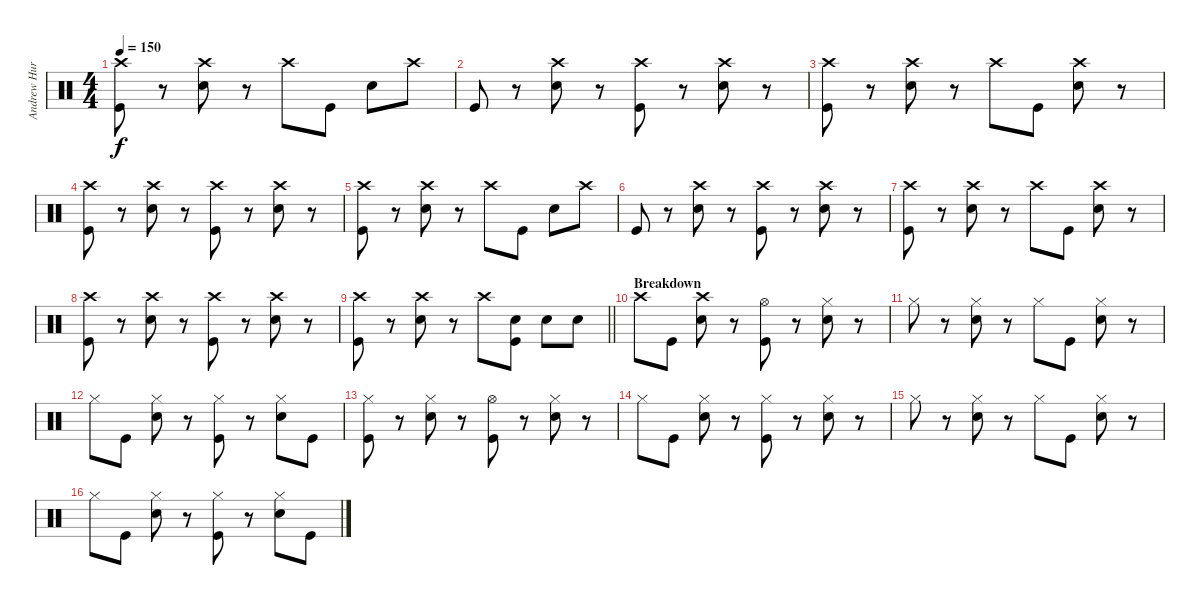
\track ("Andrew Hurley (Drums)" "Andrew Hur") {instrument percussion}
\staff {score}
\articulation defaults
\ts (4 4)
\tempo 150
\clef neutral
\ks c
("Crash high (hit)" "Kick (hit)").8{dy f} r.8 ("Crash high (hit)" "Snare (hit) 2").8 r.8 "Crash high (hit)".8 "Kick (hit)".8 "Snare (hit) 2".8 "Crash high (hit)".8 |
"Kick (hit)".8 r.8 ("Crash high (hit)" "Snare (hit) 2").8 r.8 ("Crash high (hit)" "Kick (hit)").8 r.8 ("Crash high (hit)" "Snare (hit) 2").8 r.8 |
("Crash high (hit)" "Kick (hit)").8 r.8 ("Crash high (hit)" "Snare (hit) 2").8 r.8 "Crash high (hit)".8 "Kick (hit)".8 ("Crash high (hit)" "Snare (hit) 2").8 r.8 |
("Crash high (hit)" "Kick (hit)").8 r.8 ("Crash high (hit)" "Snare (hit) 2").8 r.8 ("Crash high (hit)" "Kick (hit)").8 r.8 ("Crash high (hit)" "Snare (hit) 2").8 r.8 |
("Crash high (hit)" "Kick (hit)").8 r.8 ("Crash high (hit)" "Snare (hit) 2").8 r.8 "Crash high (hit)".8 "Kick (hit)".8 "Snare (hit) 2".8 "Crash high (hit)".8 |
"Kick (hit)".8 r.8 ("Crash high (hit)" "Snare (hit) 2").8 r.8 ("Crash high (hit)" "Kick (hit)").8 r.8 ("Crash high (hit)" "Snare (hit) 2").8 r.8 |
("Crash high (hit)" "Kick (hit)").8 r.8 ("Crash high (hit)" "Snare (hit) 2").8 r.8 "Crash high (hit)".8 "Kick (hit)".8 ("Crash high (hit)" "Snare (hit) 2").8 r.8 |
("Crash high (hit)" "Kick (hit)").8 r.8 ("Crash high (hit)" "Snare (hit) 2").8 r.8 ("Crash high (hit)" "Kick (hit)").8 r.8 ("Crash high (hit)" "Snare (hit) 2").8 r.8 |
\barLineRight lightlight
("Crash high (hit)" "Kick (hit)").8 r.8 ("Crash high (hit)" "Snare (hit) 2").8 r.8 "Crash high (hit)".8 ("Snare (hit) 2" "Kick (hit)").8 "Snare (hit) 2".8 "Snare (hit) 2".8 |
\section ("" "Breakdown")
"Crash high (hit)".8 "Kick (hit)".8 ("Crash high (hit)" "Snare (hit) 2").8 r.8 ("Hi-Hat (open)" "Kick (hit)").8 r.8 ("Hi-Hat (closed)" "Snare (hit) 2").8 r.8 |
"Hi-Hat (closed)".8 r.8 ("Hi-Hat (closed)" "Snare (hit) 2").8 r.8 "Hi-Hat (closed)".8 "Kick (hit)".8 ("Hi-Hat (closed)" "Snare (hit) 2").8 r.8 |
"Hi-Hat (closed)".8 "Kick (hit)".8 ("Hi-Hat (closed)" "Snare (hit) 2").8 r.8 ("Hi-Hat (closed)" "Kick (hit)").8 r.8 ("Hi-Hat (closed)" "Snare (hit) 2").8 "Kick (hit)".8 |
("Hi-Hat (closed)" "Kick (hit)").8 r.8 ("Hi-Hat (closed)" "Snare (hit) 2").8 r.8 ("Hi-Hat (open)" "Kick (hit)").8 r.8 ("Hi-Hat (closed)" "Snare (hit) 2").8 r.8 |
"Hi-Hat (closed)".8 "Kick (hit)".8 ("Hi-Hat (closed)" "Snare (hit) 2").8 r.8 ("Hi-Hat (closed)" "Kick (hit)").8 r.8 ("Hi-Hat (closed)" "Snare (hit) 2").8 r.8 |
"Hi-Hat (closed)".8 r.8 ("Hi-Hat (closed)" "Snare (hit) 2").8 r.8 "Hi-Hat (closed)".8 "Kick (hit)".8 ("Hi-Hat (closed)" "Snare (hit) 2").8 r.8 |
"Hi-Hat (closed)".8 "Kick (hit)".8 ("Hi-Hat (closed)" "Snare (hit) 2").8 r.8 ("Hi-Hat (closed)" "Kick (hit)").8 r.8 ("Hi-Hat (closed)" "Snare (hit) 2").8 "Kick (hit)".8
